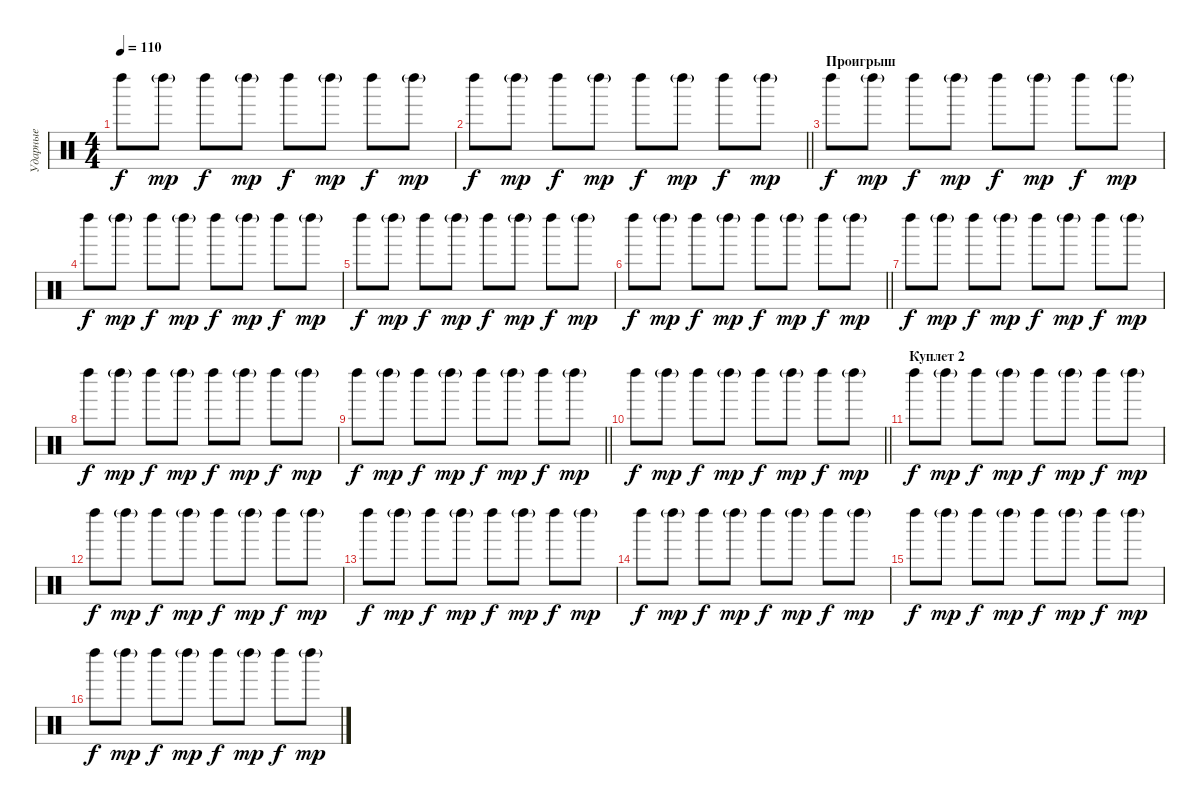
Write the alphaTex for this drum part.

\track ("Ударные" "Ударные") {instrument percussion}
\staff {score}
\articulation defaults
\ts (4 4)
\tempo 110
\clef neutral
\ks c "Left Maraca (hit)".8{dy f} "Left Maraca (hit)"{g}.8{dy mp} "Left Maraca (hit)".8{dy f} "Left Maraca (hit)"{g}.8{dy mp} "Left Maraca (hit)".8{dy f} "Left Maraca (hit)"{g}.8{dy mp} "Left Maraca (hit)".8{dy f} "Left Maraca (hit)"{g}.8{dy mp}
|
\barLineRight lightlight "Left Maraca (hit)".8{dy f} "Left Maraca (hit)"{g}.8{dy mp} "Left Maraca (hit)".8{dy f} "Left Maraca (hit)"{g}.8{dy mp} "Left Maraca (hit)".8{dy f} "Left Maraca (hit)"{g}.8{dy mp} "Left Maraca (hit)".8{dy f} "Left Maraca (hit)"{g}.8{dy mp}
|
\section ("" "Проигрыш")
"Left Maraca (hit)".8{dy f} "Left Maraca (hit)"{g}.8{dy mp} "Left Maraca (hit)".8{dy f} "Left Maraca (hit)"{g}.8{dy mp} "Left Maraca (hit)".8{dy f} "Left Maraca (hit)"{g}.8{dy mp} "Left Maraca (hit)".8{dy f} "Left Maraca (hit)"{g}.8{dy mp} |
"Left Maraca (hit)".8{dy f} "Left Maraca (hit)"{g}.8{dy mp} "Left Maraca (hit)".8{dy f} "Left Maraca (hit)"{g}.8{dy mp} "Left Maraca (hit)".8{dy f} "Left Maraca (hit)"{g}.8{dy mp} "Left Maraca (hit)".8{dy f} "Left Maraca (hit)"{g}.8{dy mp} |
"Left Maraca (hit)".8{dy f} "Left Maraca (hit)"{g}.8{dy mp} "Left Maraca (hit)".8{dy f} "Left Maraca (hit)"{g}.8{dy mp} "Left Maraca (hit)".8{dy f} "Left Maraca (hit)"{g}.8{dy mp} "Left Maraca (hit)".8{dy f} "Left Maraca (hit)"{g}.8{dy mp} |
\barLineRight lightlight "Left Maraca (hit)".8{dy f} "Left Maraca (hit)"{g}.8{dy mp} "Left Maraca (hit)".8{dy f} "Left Maraca (hit)"{g}.8{dy mp} "Left Maraca (hit)".8{dy f} "Left Maraca (hit)"{g}.8{dy mp} "Left Maraca (hit)".8{dy f} "Left Maraca (hit)"{g}.8{dy mp}
|
"Left Maraca (hit)".8{dy f} "Left Maraca (hit)"{g}.8{dy mp} "Left Maraca (hit)".8{dy f} "Left Maraca (hit)"{g}.8{dy mp} "Left Maraca (hit)".8{dy f} "Left Maraca (hit)"{g}.8{dy mp} "Left Maraca (hit)".8{dy f} "Left Maraca (hit)"{g}.8{dy mp} |
"Left Maraca (hit)".8{dy f} "Left Maraca (hit)"{g}.8{dy mp} "Left Maraca (hit)".8{dy f} "Left Maraca (hit)"{g}.8{dy mp} "Left Maraca (hit)".8{dy f} "Left Maraca (hit)"{g}.8{dy mp} "Left Maraca (hit)".8{dy f} "Left Maraca (hit)"{g}.8{dy mp} |
\barLineRight lightlight "Left Maraca (hit)".8{dy f} "Left Maraca (hit)"{g}.8{dy mp} "Left Maraca (hit)".8{dy f} "Left Maraca (hit)"{g}.8{dy mp} "Left Maraca (hit)".8{dy f} "Left Maraca (hit)"{g}.8{dy mp} "Left Maraca (hit)".8{dy f} "Left Maraca (hit)"{g}.8{dy mp}
|
\barLineRight lightlight "Left Maraca (hit)".8{dy f} "Left Maraca (hit)"{g}.8{dy mp} "Left Maraca (hit)".8{dy f} "Left Maraca (hit)"{g}.8{dy mp} "Left Maraca (hit)".8{dy f} "Left Maraca (hit)"{g}.8{dy mp} "Left Maraca (hit)".8{dy f} "Left Maraca (hit)"{g}.8{dy mp}
|
\section ("" "Куплет 2")
"Left Maraca (hit)".8{dy f} "Left Maraca (hit)"{g}.8{dy mp} "Left Maraca (hit)".8{dy f} "Left Maraca (hit)"{g}.8{dy mp} "Left Maraca (hit)".8{dy f} "Left Maraca (hit)"{g}.8{dy mp} "Left Maraca (hit)".8{dy f} "Left Maraca (hit)"{g}.8{dy mp} |
"Left Maraca (hit)".8{dy f} "Left Maraca (hit)"{g}.8{dy mp} "Left Maraca (hit)".8{dy f} "Left Maraca (hit)"{g}.8{dy mp} "Left Maraca (hit)".8{dy f} "Left Maraca (hit)"{g}.8{dy mp} "Left Maraca (hit)".8{dy f} "Left Maraca (hit)"{g}.8{dy mp} |
"Left Maraca (hit)".8{dy f} "Left Maraca (hit)"{g}.8{dy mp} "Left Maraca (hit)".8{dy f} "Left Maraca (hit)"{g}.8{dy mp} "Left Maraca (hit)".8{dy f} "Left Maraca (hit)"{g}.8{dy mp} "Left Maraca (hit)".8{dy f} "Left Maraca (hit)"{g}.8{dy mp} |
"Left Maraca (hit)".8{dy f} "Left Maraca (hit)"{g}.8{dy mp} "Left Maraca (hit)".8{dy f} "Left Maraca (hit)"{g}.8{dy mp} "Left Maraca (hit)".8{dy f} "Left Maraca (hit)"{g}.8{dy mp} "Left Maraca (hit)".8{dy f} "Left Maraca (hit)"{g}.8{dy mp} |
"Left Maraca (hit)".8{dy f} "Left Maraca (hit)"{g}.8{dy mp} "Left Maraca (hit)".8{dy f} "Left Maraca (hit)"{g}.8{dy mp} "Left Maraca (hit)".8{dy f} "Left Maraca (hit)"{g}.8{dy mp} "Left Maraca (hit)".8{dy f} "Left Maraca (hit)"{g}.8{dy mp} |
"Left Maraca (hit)".8{dy f} "Left Maraca (hit)"{g}.8{dy mp} "Left Maraca (hit)".8{dy f} "Left Maraca (hit)"{g}.8{dy mp} "Left Maraca (hit)".8{dy f} "Left Maraca (hit)"{g}.8{dy mp} "Left Maraca (hit)".8{dy f} "Left Maraca (hit)"{g}.8{dy mp}
